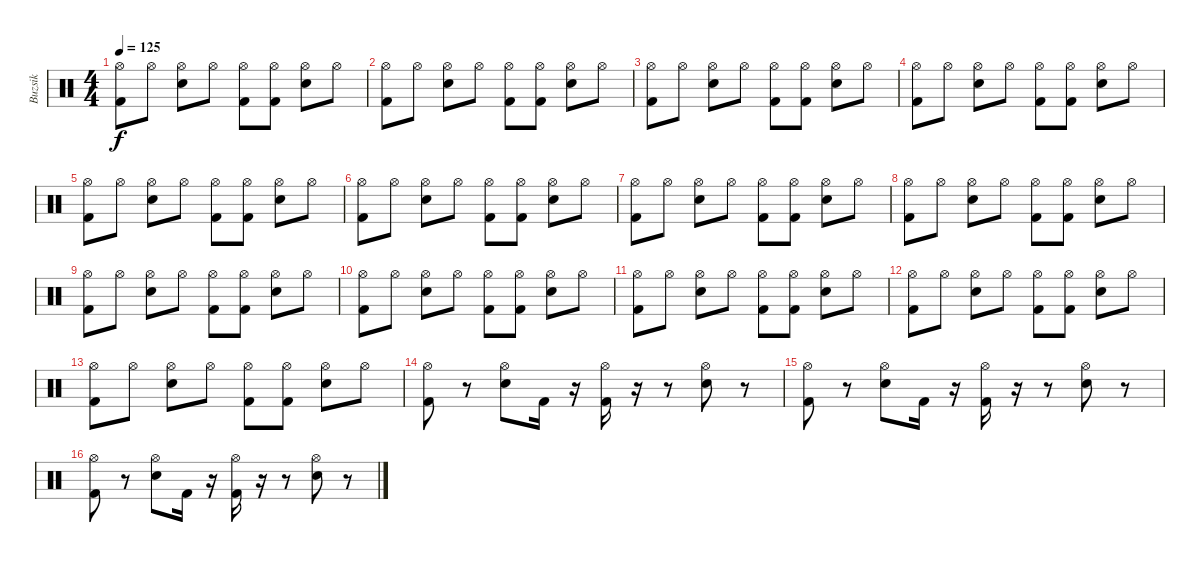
\track ("Buzsik" "Buzsik") {instrument percussion}
\staff {score}
\articulation defaults
\ts (4 4)
\tempo 125
\clef neutral
\ks c
("Hi-Hat (open)" "Kick (hit) 2").8{dy f} "Hi-Hat (open)".8 ("Hi-Hat (open)" "Electric Snare (hit)").8 "Hi-Hat (open)".8 ("Hi-Hat (open)" "Kick (hit) 2").8 ("Hi-Hat (open)" "Kick (hit) 2").8 ("Hi-Hat (open)" "Electric Snare (hit)").8 "Hi-Hat (open)".8 |
("Hi-Hat (open)" "Kick (hit) 2").8 "Hi-Hat (open)".8 ("Hi-Hat (open)" "Electric Snare (hit)").8 "Hi-Hat (open)".8 ("Hi-Hat (open)" "Kick (hit) 2").8 ("Hi-Hat (open)" "Kick (hit) 2").8 ("Hi-Hat (open)" "Electric Snare (hit)").8 "Hi-Hat (open)".8 |
("Hi-Hat (open)" "Kick (hit) 2").8 "Hi-Hat (open)".8 ("Hi-Hat (open)" "Electric Snare (hit)").8 "Hi-Hat (open)".8 ("Hi-Hat (open)" "Kick (hit) 2").8 ("Hi-Hat (open)" "Kick (hit) 2").8 ("Hi-Hat (open)" "Electric Snare (hit)").8 "Hi-Hat (open)".8 |
("Hi-Hat (open)" "Kick (hit) 2").8 "Hi-Hat (open)".8 ("Hi-Hat (open)" "Electric Snare (hit)").8 "Hi-Hat (open)".8 ("Hi-Hat (open)" "Kick (hit) 2").8 ("Hi-Hat (open)" "Kick (hit) 2").8 ("Hi-Hat (open)" "Electric Snare (hit)").8 "Hi-Hat (open)".8 |
("Hi-Hat (open)" "Kick (hit) 2").8 "Hi-Hat (open)".8 ("Hi-Hat (open)" "Electric Snare (hit)").8 "Hi-Hat (open)".8 ("Hi-Hat (open)" "Kick (hit) 2").8 ("Hi-Hat (open)" "Kick (hit) 2").8 ("Hi-Hat (open)" "Electric Snare (hit)").8 "Hi-Hat (open)".8 |
("Hi-Hat (open)" "Kick (hit) 2").8 "Hi-Hat (open)".8 ("Hi-Hat (open)" "Electric Snare (hit)").8 "Hi-Hat (open)".8 ("Hi-Hat (open)" "Kick (hit) 2").8 ("Hi-Hat (open)" "Kick (hit) 2").8 ("Hi-Hat (open)" "Electric Snare (hit)").8 "Hi-Hat (open)".8 |
("Hi-Hat (open)" "Kick (hit) 2").8 "Hi-Hat (open)".8 ("Hi-Hat (open)" "Electric Snare (hit)").8 "Hi-Hat (open)".8 ("Hi-Hat (open)" "Kick (hit) 2").8 ("Hi-Hat (open)" "Kick (hit) 2").8 ("Hi-Hat (open)" "Electric Snare (hit)").8 "Hi-Hat (open)".8 |
("Hi-Hat (open)" "Kick (hit) 2").8 "Hi-Hat (open)".8 ("Hi-Hat (open)" "Electric Snare (hit)").8 "Hi-Hat (open)".8 ("Hi-Hat (open)" "Kick (hit) 2").8 ("Hi-Hat (open)" "Kick (hit) 2").8 ("Hi-Hat (open)" "Electric Snare (hit)").8 "Hi-Hat (open)".8 |
("Hi-Hat (open)" "Kick (hit) 2").8 "Hi-Hat (open)".8 ("Hi-Hat (open)" "Electric Snare (hit)").8 "Hi-Hat (open)".8 ("Hi-Hat (open)" "Kick (hit) 2").8 ("Hi-Hat (open)" "Kick (hit) 2").8 ("Hi-Hat (open)" "Electric Snare (hit)").8 "Hi-Hat (open)".8 |
("Hi-Hat (open)" "Kick (hit) 2").8 "Hi-Hat (open)".8 ("Hi-Hat (open)" "Electric Snare (hit)").8 "Hi-Hat (open)".8 ("Hi-Hat (open)" "Kick (hit) 2").8 ("Hi-Hat (open)" "Kick (hit) 2").8 ("Hi-Hat (open)" "Electric Snare (hit)").8 "Hi-Hat (open)".8 |
("Hi-Hat (open)" "Kick (hit) 2").8 "Hi-Hat (open)".8 ("Hi-Hat (open)" "Electric Snare (hit)").8 "Hi-Hat (open)".8 ("Hi-Hat (open)" "Kick (hit) 2").8 ("Hi-Hat (open)" "Kick (hit) 2").8 ("Hi-Hat (open)" "Electric Snare (hit)").8 "Hi-Hat (open)".8 |
("Hi-Hat (open)" "Kick (hit) 2").8 "Hi-Hat (open)".8 ("Hi-Hat (open)" "Electric Snare (hit)").8 "Hi-Hat (open)".8 ("Hi-Hat (open)" "Kick (hit) 2").8 ("Hi-Hat (open)" "Kick (hit) 2").8 ("Hi-Hat (open)" "Electric Snare (hit)").8 "Hi-Hat (open)".8 |
("Hi-Hat (open)" "Kick (hit) 2").8 "Hi-Hat (open)".8 ("Hi-Hat (open)" "Electric Snare (hit)").8 "Hi-Hat (open)".8 ("Hi-Hat (open)" "Kick (hit) 2").8 ("Hi-Hat (open)" "Kick (hit) 2").8 ("Hi-Hat (open)" "Electric Snare (hit)").8 "Hi-Hat (open)".8 |
("Hi-Hat (open)" "Kick (hit) 2").8 r.8 ("Hi-Hat (open)" "Electric Snare (hit)").8 "Kick (hit) 2".16 r.16 ("Hi-Hat (open)" "Kick (hit) 2").16 r.16 r.8 ("Hi-Hat (open)" "Electric Snare (hit)").8 r.8 |
("Hi-Hat (open)" "Kick (hit) 2").8 r.8 ("Hi-Hat (open)" "Electric Snare (hit)").8 "Kick (hit) 2".16 r.16 ("Hi-Hat (open)" "Kick (hit) 2").16 r.16 r.8 ("Hi-Hat (open)" "Electric Snare (hit)").8 r.8 |
("Hi-Hat (open)" "Kick (hit) 2").8 r.8 ("Hi-Hat (open)" "Electric Snare (hit)").8 "Kick (hit) 2".16 r.16 ("Hi-Hat (open)" "Kick (hit) 2").16 r.16 r.8 ("Hi-Hat (open)" "Electric Snare (hit)").8 r.8
